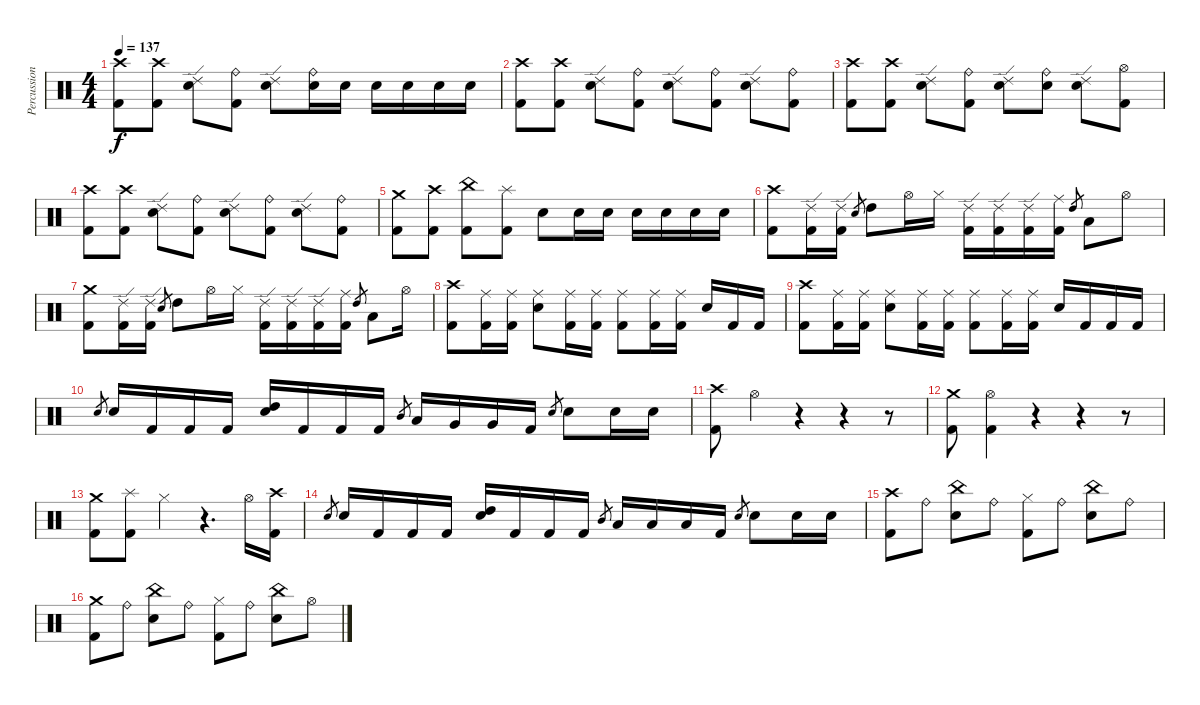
\track ("Percussion" "Percussion") {instrument percussion}
\staff {score}
\articulation defaults
\ts (4 4)
\tempo 137
\clef neutral
\ks c
("Crash high (hit)" "Kick (hit) 2").8{dy f} ("Crash high (hit)" "Kick (hit) 2").8 ("Ride (edge) 2" "Electric Snare (hit)").8 ("Ride (bell)" "Kick (hit) 2").8 ("Ride (edge) 2" "Electric Snare (hit)").8 ("Ride (bell)" "Electric Snare (hit)").16 "Electric Snare (hit)".16 "Electric Snare (hit)".16 "Electric Snare (hit)".16 "Electric Snare (hit)".16 "Electric Snare (hit)".16 |
("Crash high (hit)" "Kick (hit) 2").8 ("Crash high (hit)" "Kick (hit) 2").8 ("Ride (edge) 2" "Electric Snare (hit)").8 ("Ride (bell)" "Kick (hit) 2").8 ("Ride (edge) 2" "Electric Snare (hit)").8 ("Ride (bell)" "Kick (hit) 2").8 ("Ride (edge) 2" "Electric Snare (hit)").8 ("Ride (bell)" "Kick (hit) 2").8 |
("Crash high (hit)" "Kick (hit) 2").8 ("Crash high (hit)" "Kick (hit) 2").8 ("Ride (edge) 2" "Electric Snare (hit)").8 ("Ride (bell)" "Kick (hit) 2").8 ("Ride (edge) 2" "Electric Snare (hit)").8 ("Ride (bell)" "Electric Snare (hit)").8 ("Ride (edge) 2" "Electric Snare (hit)").8 ("Hi-Hat (open)" "Kick (hit) 2").8 |
("Crash high (hit)" "Kick (hit) 2").8 ("Crash high (hit)" "Kick (hit) 2").8 ("Ride (edge) 2" "Electric Snare (hit)").8 ("Ride (bell)" "Kick (hit) 2").8 ("Ride (edge) 2" "Electric Snare (hit)").8 ("Ride (bell)" "Kick (hit) 2").8 ("Ride (edge) 2" "Electric Snare (hit)").8 ("Ride (bell)" "Kick (hit) 2").8 |
("Crash medium (hit)" "Kick (hit) 2").8 ("Crash high (hit)" "Kick (hit) 2").8 ("China (hit)" "Kick (hit) 2").8 ("Splash (hit)" "Kick (hit) 2").8 "Electric Snare (hit)".8 "Electric Snare (hit)".16 "Electric Snare (hit)".16 "Electric Snare (hit)".16 "Electric Snare (hit)".16 "Electric Snare (hit)".16 "Electric Snare (hit)".16 |
("Crash high (hit)" "Kick (hit) 2").8 ("Ride (edge) 2" "Kick (hit) 2").16 ("Ride (edge) 2" "Kick (hit) 2").16 "Electric Snare (hit)".8{gr} "High Tom (hit)".8 "Hi-Hat (open)".16 "Hi-Hat (closed)".16 ("Ride (edge) 2" "Kick (hit) 2").16 ("Ride (edge) 2" "Kick (hit) 2").16 ("Ride (edge) 2" "Kick (hit) 2").16 ("Ride (middle)" "Kick (hit) 2").16 "High Tom (hit)".8{gr} "Low Tom (hit)".8 "Hi-Hat (open)".8 |
("Crash medium (hit)" "Kick (hit) 2").8 ("Ride (edge) 2" "Kick (hit) 2").16 ("Ride (edge) 2" "Kick (hit) 2").16 "Electric Snare (hit)".8{gr} "High Tom (hit)".8 "Hi-Hat (open)".16 "Hi-Hat (closed)".16 ("Ride (edge) 2" "Kick (hit) 2").16 ("Ride (edge) 2" "Kick (hit) 2").16 ("Ride (edge) 2" "Kick (hit) 2").16 ("Ride (middle)" "Kick (hit) 2").16 "High Tom (hit)".8{gr} "Low Tom (hit)".8 "Hi-Hat (open)".16 |
("Crash high (hit)" "Kick (hit) 2").8 ("Ride (middle)" "Kick (hit) 2").16 ("Ride (middle)" "Kick (hit) 2").16 ("Ride (middle)" "Electric Snare (hit)").8 ("Ride (middle)" "Kick (hit) 2").16 ("Ride (middle)" "Kick (hit) 2").16 ("Ride (middle)" "Kick (hit) 2").8 ("Ride (middle)" "Kick (hit) 2").16 ("Ride (middle)" "Kick (hit) 2").16 "Electric Snare (hit)".16 "Kick (hit) 2".16 "Kick (hit) 2".16 |
("Crash high (hit)" "Kick (hit) 2").8 ("Ride (middle)" "Kick (hit) 2").16 ("Ride (middle)" "Kick (hit) 2").16 ("Ride (middle)" "Electric Snare (hit)").8 ("Ride (middle)" "Kick (hit) 2").16 ("Ride (middle)" "Kick (hit) 2").16 ("Ride (middle)" "Kick (hit) 2").8 ("Ride (middle)" "Kick (hit) 2").16 ("Ride (middle)" "Kick (hit) 2").16 "Electric Snare (hit)".16 "Kick (hit) 2".16 "Kick (hit) 2".16 "Kick (hit) 2".16 |
"Electric Snare (hit)".8{gr} "Electric Snare (hit)".16 "Kick (hit) 2".16 "Kick (hit) 2".16 "Kick (hit) 2".16 ("High Tom (hit)" "Electric Snare (hit)").16 "Kick (hit) 2".16 "Kick (hit) 2".16 "Kick (hit) 2".16 "Mid Tom (hit)".8{gr} "Low Tom (hit)".16 "Very Low Tom (hit)".16 "Very Low Tom (hit)".16 "Kick (hit) 2".16 "Electric Snare (hit)".8{gr} "Electric Snare (hit)".8 "Electric Snare (hit)".16 "Electric Snare (hit)".16 |
("Crash high (hit)" "Kick (hit) 2").8 "Hi-Hat (open)".4 r.4 r.4 r.8 |
("Crash medium (hit)" "Kick (hit) 2").8 ("Hi-Hat (open)" "Kick (hit) 2").4 r.4 r.4 r.8 |
("Crash medium (hit)" "Kick (hit) 2").8 ("Splash (hit)" "Kick (hit) 2").8 "Hi-Hat (closed)".4 r.4{d} "Hi-Hat (open)".16 ("Crash high (hit)" "Kick (hit) 2").16 |
"Electric Snare (hit)".8{gr} "Electric Snare (hit)".16 "Kick (hit) 2".16 "Kick (hit) 2".16 "Kick (hit) 2".16 ("High Tom (hit)" "Electric Snare (hit)").16 "Kick (hit) 2".16 "Kick (hit) 2".16 "Kick (hit) 2".16 "Mid Tom (hit)".8{gr} "Low Tom (hit)".16 "Low Tom (hit)".16 "Low Tom (hit)".16 "Kick (hit) 2".16 "Electric Snare (hit)".8{gr} "Electric Snare (hit)".8 "Electric Snare (hit)".16 "Electric Snare (hit)".16 |
("Crash high (hit)" "Kick (hit) 2").8 "Ride (bell)".8 ("China (hit)" "Electric Snare (hit)").8 "Ride (bell)".8 ("Hi-Hat (closed)" "Kick (hit) 2").8 "Ride (bell)".8 ("China (hit)" "Electric Snare (hit)").8 "Ride (bell)".8 |
("Crash medium (hit)" "Kick (hit) 2").8 "Ride (bell)".8 ("China (hit)" "Electric Snare (hit)").8 "Ride (bell)".8 ("Hi-Hat (closed)" "Kick (hit) 2").8 "Ride (bell)".8 ("China (hit)" "Electric Snare (hit)").8 "Hi-Hat (open)".8
